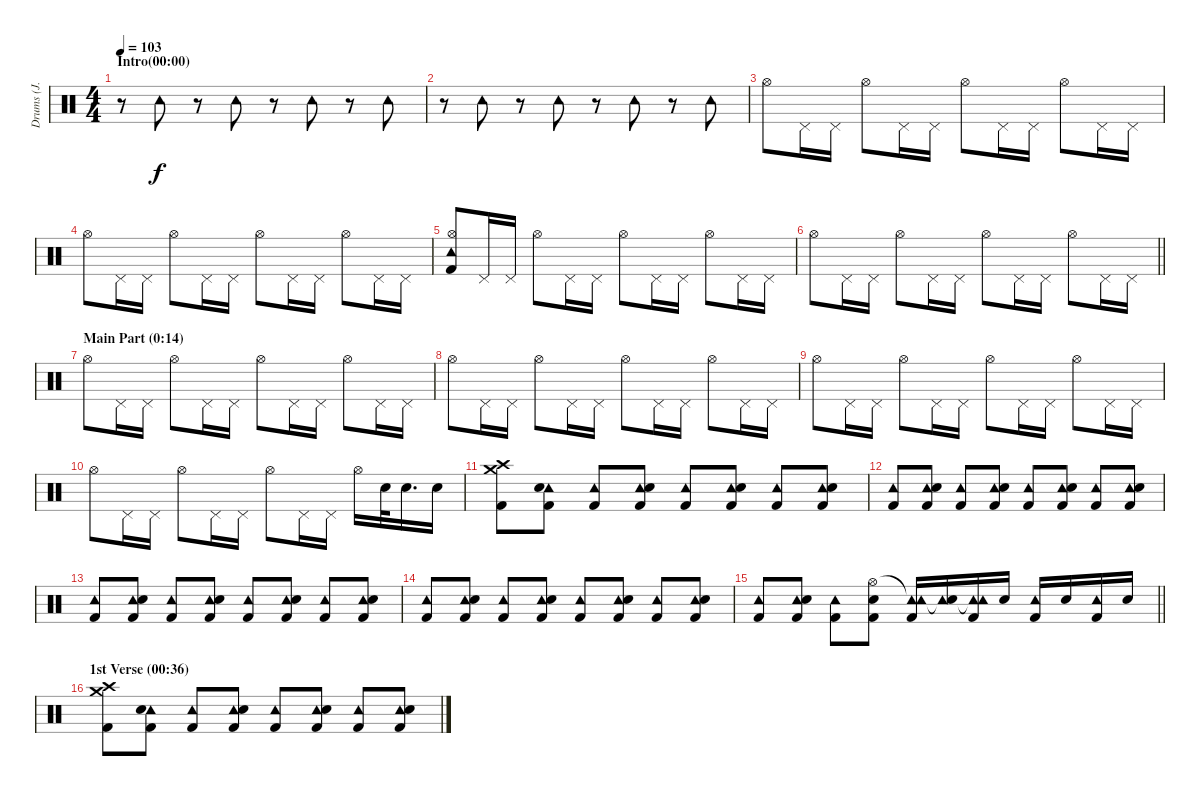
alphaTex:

\track ("Drums (J. Cramer)" "Drums (J. ") {instrument percussion}
\staff {score}
\articulation defaults
\ts (4 4)
\section ("" "Intro(00:00)")
\tempo 103
\clef neutral
\ks c
r.8{dy f} "Tambourine (hit)".8 r.8 "Tambourine (hit)".8 r.8 "Tambourine (hit)".8 r.8 "Tambourine (hit)".8 |
r.8 "Tambourine (hit)".8 r.8 "Tambourine (hit)".8 r.8 "Tambourine (hit)".8 r.8 "Tambourine (hit)".8 |
"Hi-Hat (open)".8 "Pedal Hi-Hat (hit)".16 "Pedal Hi-Hat (hit)".16 "Hi-Hat (open)".8 "Pedal Hi-Hat (hit)".16 "Pedal Hi-Hat (hit)".16 "Hi-Hat (open)".8 "Pedal Hi-Hat (hit)".16 "Pedal Hi-Hat (hit)".16 "Hi-Hat (open)".8 "Pedal Hi-Hat (hit)".16 "Pedal Hi-Hat (hit)".16 |
"Hi-Hat (open)".8 "Pedal Hi-Hat (hit)".16 "Pedal Hi-Hat (hit)".16 "Hi-Hat (open)".8 "Pedal Hi-Hat (hit)".16 "Pedal Hi-Hat (hit)".16 "Hi-Hat (open)".8 "Pedal Hi-Hat (hit)".16 "Pedal Hi-Hat (hit)".16 "Hi-Hat (open)".8 "Pedal Hi-Hat (hit)".16 "Pedal Hi-Hat (hit)".16 |
("Hi-Hat (open)" "Tambourine (hit)" "Kick (hit) 2").8 "Pedal Hi-Hat (hit)".16 "Pedal Hi-Hat (hit)".16 "Hi-Hat (open)".8 "Pedal Hi-Hat (hit)".16 "Pedal Hi-Hat (hit)".16 "Hi-Hat (open)".8 "Pedal Hi-Hat (hit)".16 "Pedal Hi-Hat (hit)".16 "Hi-Hat (open)".8 "Pedal Hi-Hat (hit)".16 "Pedal Hi-Hat (hit)".16 |
\barLineRight lightlight "Hi-Hat (open)".8 "Pedal Hi-Hat (hit)".16 "Pedal Hi-Hat (hit)".16 "Hi-Hat (open)".8 "Pedal Hi-Hat (hit)".16 "Pedal Hi-Hat (hit)".16 "Hi-Hat (open)".8 "Pedal Hi-Hat (hit)".16 "Pedal Hi-Hat (hit)".16 "Hi-Hat (open)".8 "Pedal Hi-Hat (hit)".16 "Pedal Hi-Hat (hit)".16
|
\section ("" "Main Part (0:14)")
"Hi-Hat (open)".8 "Pedal Hi-Hat (hit)".16 "Pedal Hi-Hat (hit)".16 "Hi-Hat (open)".8 "Pedal Hi-Hat (hit)".16 "Pedal Hi-Hat (hit)".16 "Hi-Hat (open)".8 "Pedal Hi-Hat (hit)".16 "Pedal Hi-Hat (hit)".16 "Hi-Hat (open)".8 "Pedal Hi-Hat (hit)".16 "Pedal Hi-Hat (hit)".16 |
"Hi-Hat (open)".8 "Pedal Hi-Hat (hit)".16 "Pedal Hi-Hat (hit)".16 "Hi-Hat (open)".8 "Pedal Hi-Hat (hit)".16 "Pedal Hi-Hat (hit)".16 "Hi-Hat (open)".8 "Pedal Hi-Hat (hit)".16 "Pedal Hi-Hat (hit)".16 "Hi-Hat (open)".8 "Pedal Hi-Hat (hit)".16 "Pedal Hi-Hat (hit)".16 |
"Hi-Hat (open)".8 "Pedal Hi-Hat (hit)".16 "Pedal Hi-Hat (hit)".16 "Hi-Hat (open)".8 "Pedal Hi-Hat (hit)".16 "Pedal Hi-Hat (hit)".16 "Hi-Hat (open)".8 "Pedal Hi-Hat (hit)".16 "Pedal Hi-Hat (hit)".16 "Hi-Hat (open)".8 "Pedal Hi-Hat (hit)".16 "Pedal Hi-Hat (hit)".16 |
"Hi-Hat (open)".8 "Pedal Hi-Hat (hit)".16 "Pedal Hi-Hat (hit)".16 "Hi-Hat (open)".8 "Pedal Hi-Hat (hit)".16 "Pedal Hi-Hat (hit)".16 "Hi-Hat (open)".8 "Pedal Hi-Hat (hit)".16 "Pedal Hi-Hat (hit)".16 "Hi-Hat (open)".16 "Electric Snare (hit)".32 "Electric Snare (hit)".16{d} "Electric Snare (hit)".16 |
("Kick (hit) 2" "Crash high (hit)" "Crash medium (hit)").8 ("Tambourine (hit)" "Electric Snare (hit)" "Kick (hit) 2").8 ("Tambourine (hit)" "Kick (hit) 2").8 ("Tambourine (hit)" "Electric Snare (hit)" "Kick (hit) 2").8 ("Tambourine (hit)" "Kick (hit) 2").8 ("Tambourine (hit)" "Electric Snare (hit)" "Kick (hit) 2").8 ("Tambourine (hit)" "Kick (hit) 2").8 ("Tambourine (hit)" "Electric Snare (hit)" "Kick (hit) 2").8 |
("Tambourine (hit)" "Kick (hit) 2").8 ("Tambourine (hit)" "Electric Snare (hit)" "Kick (hit) 2").8 ("Tambourine (hit)" "Kick (hit) 2").8 ("Tambourine (hit)" "Electric Snare (hit)" "Kick (hit) 2").8 ("Tambourine (hit)" "Kick (hit) 2").8 ("Tambourine (hit)" "Electric Snare (hit)" "Kick (hit) 2").8 ("Tambourine (hit)" "Kick (hit) 2").8 ("Tambourine (hit)" "Electric Snare (hit)" "Kick (hit) 2").8 |
("Tambourine (hit)" "Kick (hit) 2").8 ("Tambourine (hit)" "Electric Snare (hit)" "Kick (hit) 2").8 ("Tambourine (hit)" "Kick (hit) 2").8 ("Tambourine (hit)" "Electric Snare (hit)" "Kick (hit) 2").8 ("Tambourine (hit)" "Kick (hit) 2").8 ("Tambourine (hit)" "Electric Snare (hit)" "Kick (hit) 2").8 ("Tambourine (hit)" "Kick (hit) 2").8 ("Tambourine (hit)" "Electric Snare (hit)" "Kick (hit) 2").8 |
("Tambourine (hit)" "Kick (hit) 2").8 ("Tambourine (hit)" "Electric Snare (hit)" "Kick (hit) 2").8 ("Tambourine (hit)" "Kick (hit) 2").8 ("Tambourine (hit)" "Electric Snare (hit)" "Kick (hit) 2").8 ("Tambourine (hit)" "Kick (hit) 2").8 ("Tambourine (hit)" "Electric Snare (hit)" "Kick (hit) 2").8 ("Tambourine (hit)" "Kick (hit) 2").8 ("Tambourine (hit)" "Electric Snare (hit)" "Kick (hit) 2").8 |
\barLineRight lightlight
("Tambourine (hit)" "Kick (hit) 2").8 ("Tambourine (hit)" "Electric Snare (hit)" "Kick (hit) 2").8 ("Tambourine (hit)" "Kick (hit) 2").8 ("Hi-Hat (open)" "Electric Snare (hit)" "Kick (hit) 2").8 ("Tambourine (hit)"{t} "Tambourine (hit)" "Kick (hit) 2").16 ("Tambourine (hit)"{t} "Electric Snare (hit)").16 ("Tambourine (hit)"{t} "Tambourine (hit)" "Kick (hit) 2").16 "Electric Snare (hit)".16 ("Tambourine (hit)" "Kick (hit) 2").16 "Electric Snare (hit)".16 ("Tambourine (hit)" "Kick (hit) 2").16 "Electric Snare (hit)".16 |
\section ("" "1st Verse (00:36)")
("Kick (hit) 2" "Crash medium (hit)" "Crash high (hit)").8 ("Tambourine (hit)" "Electric Snare (hit)" "Kick (hit) 2").8 ("Tambourine (hit)" "Kick (hit) 2").8 ("Tambourine (hit)" "Electric Snare (hit)" "Kick (hit) 2").8 ("Tambourine (hit)" "Kick (hit) 2").8 ("Tambourine (hit)" "Electric Snare (hit)" "Kick (hit) 2").8 ("Tambourine (hit)" "Kick (hit) 2").8 ("Tambourine (hit)" "Electric Snare (hit)" "Kick (hit) 2").8
